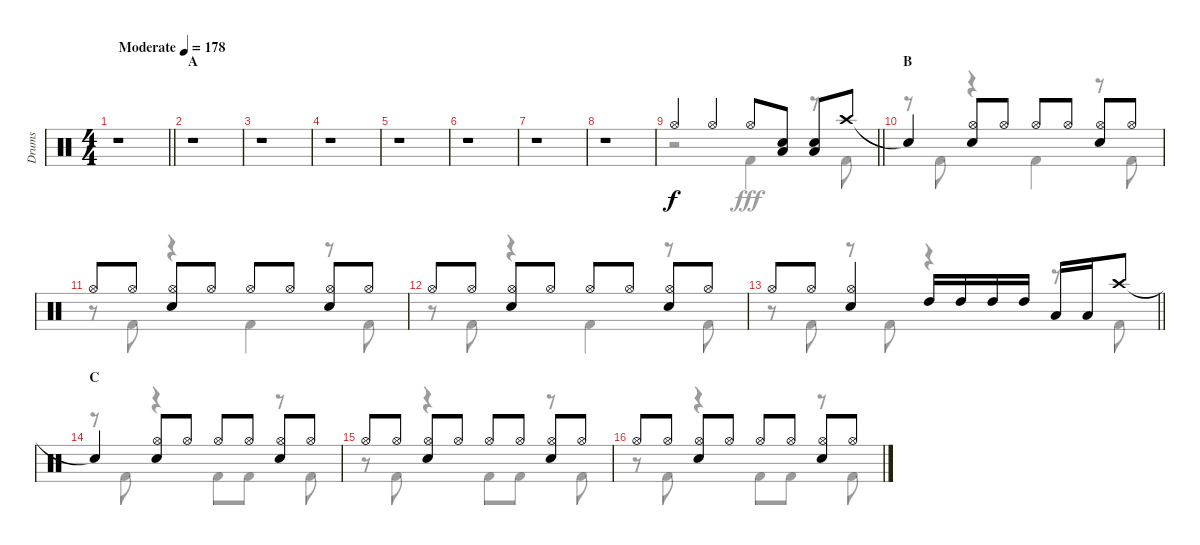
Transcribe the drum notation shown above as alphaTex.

\track ("Drums" "Drums") {instrument percussion}
\staff {score}
\articulation defaults
\voice
\ts (4 4)
\tempo (178 "Moderate")
\clef neutral
\barLineRight lightlight
\ks c
r.1{dy f} |
\section ("" "A")
r.1 |
r.1 |
r.1 |
r.1 |
r.1 |
r.1 |
r.1 |
\barLineRight lightlight "Hi-Hat (open)".4 "Hi-Hat (open)".4 "Hi-Hat (open)".8
("Snare (hit) 2" "Low Tom (hit)").8 ("Snare (hit) 2" "Low Tom (hit)").8 "Crash high (hit)".8 |
\section ("" "B")
"Snare (hit)"{t}.4 ("Hi-Hat (open)" "Snare (hit) 2").8 "Hi-Hat (open)".8 "Hi-Hat (open)".8 "Hi-Hat (open)".8 ("Hi-Hat (open)" "Snare (hit) 2").8 "Hi-Hat (open)".8 |
"Hi-Hat (open)".8 "Hi-Hat (open)".8 ("Hi-Hat (open)" "Snare (hit) 2").8 "Hi-Hat (open)".8 "Hi-Hat (open)".8 "Hi-Hat (open)".8 ("Hi-Hat (open)" "Snare (hit) 2").8 "Hi-Hat (open)".8 |
"Hi-Hat (open)".8 "Hi-Hat (open)".8 ("Hi-Hat (open)" "Snare (hit) 2").8 "Hi-Hat (open)".8 "Hi-Hat (open)".8 "Hi-Hat (open)".8 ("Hi-Hat (open)" "Snare (hit) 2").8 "Hi-Hat (open)".8 |
\barLineRight lightlight "Hi-Hat (open)".8 "Hi-Hat (open)".8
("Hi-Hat (open)" "Snare (hit) 2").4 "High Tom (hit)".16 "High Tom (hit)".16 "High Tom (hit)".16 "High Tom (hit)".16 "Low Tom (hit)".16 "Low Tom (hit)".16 "Crash high (hit)".8 |
\section ("" "C")
"Snare (hit)"{t}.4 ("Hi-Hat (open)" "Snare (hit) 2").8 "Hi-Hat (open)".8 "Hi-Hat (open)".8 "Hi-Hat (open)".8 ("Hi-Hat (open)" "Snare (hit) 2").8 "Hi-Hat (open)".8 |
"Hi-Hat (open)".8 "Hi-Hat (open)".8 ("Hi-Hat (open)" "Snare (hit) 2").8 "Hi-Hat (open)".8 "Hi-Hat (open)".8 "Hi-Hat (open)".8 ("Hi-Hat (open)" "Snare (hit) 2").8 "Hi-Hat (open)".8 |
"Hi-Hat (open)".8 "Hi-Hat (open)".8 ("Hi-Hat (open)" "Snare (hit) 2").8 "Hi-Hat (open)".8 "Hi-Hat (open)".8 "Hi-Hat (open)".8 ("Hi-Hat (open)" "Snare (hit) 2").8 "Hi-Hat (open)".8
\voice
\clef neutral
\ottava regular
\simile none
\barLineRight lightlight
\ks c
r.1{dy fff} |
r.1 |
r.1 |
r.1 |
r.1 |
r.1 |
r.1 |
r.1 |
\barLineRight lightlight
r.2 "Kick (hit) 2".4 r.8 "Kick (hit) 2".8 |
r.8 "Kick (hit) 2".8 r.4 "Kick (hit) 2".4 r.8 "Kick (hit) 2".8 |
r.8 "Kick (hit) 2".8 r.4 "Kick (hit) 2".4 r.8 "Kick (hit) 2".8 |
r.8 "Kick (hit) 2".8 r.4 "Kick (hit) 2".4 r.8 "Kick (hit) 2".8 |
\barLineRight lightlight
r.8 "Kick (hit) 2".8 r.8 "Kick (hit) 2".8 r.4 r.8 "Kick (hit) 2".8 |
r.8 "Kick (hit) 2".8 r.4 "Kick (hit) 2".8 "Kick (hit) 2".8 r.8 "Kick (hit) 2".8 |
r.8 "Kick (hit) 2".8 r.4 "Kick (hit) 2".8 "Kick (hit) 2".8 r.8 "Kick (hit) 2".8 |
r.8 "Kick (hit) 2".8 r.4 "Kick (hit) 2".8 "Kick (hit) 2".8 r.8 "Kick (hit) 2".8
